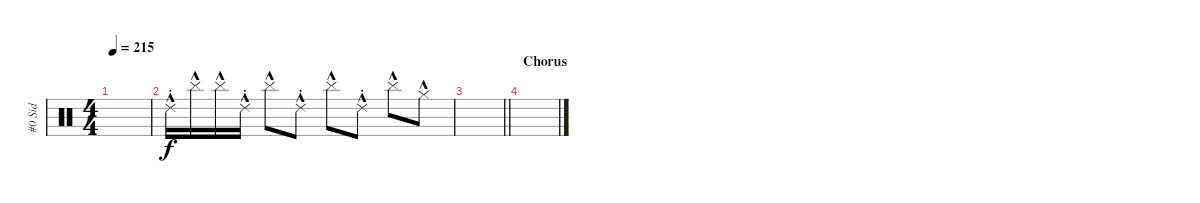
\track ("#0 Sid" "#0 Sid") {instrument percussion}
\staff {score}
\articulation defaults
\ts (4 4)
\tempo 215
\clef neutral
\ks c
|
"Ride (choke) 2"{hac}.16 "Cymbal (hit)"{hac}.16 "Cymbal (hit)"{hac}.16 "Ride (choke) 2"{hac}.16 "Cymbal (hit)"{hac}.8 "Ride (choke) 2"{hac}.8 "Cymbal (hit)"{hac}.8 "Ride (choke) 2"{hac}.8 "Cymbal (hit)"{hac}.8 "Hi-Hat (closed)"{hac}.8 |
\barLineRight lightlight
|
\section ("" "Chorus")
